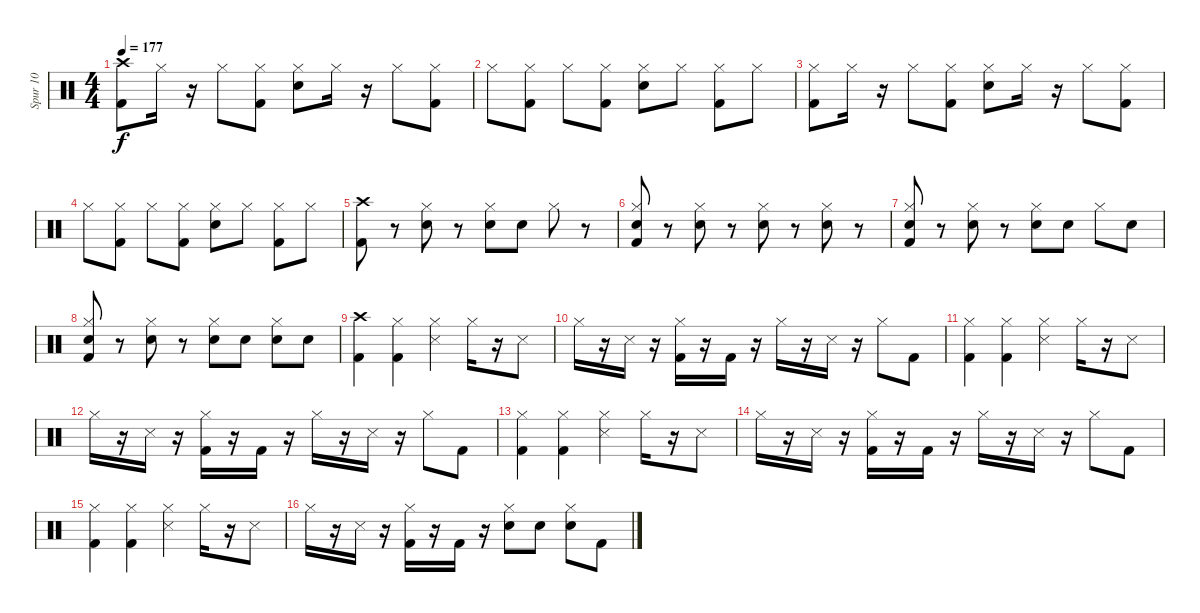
\track ("Spur 10" "Spur 10") {instrument percussion}
\staff {score}
\articulation defaults
\ts (4 4)
\tempo 177
\clef neutral
\ks c
("Crash high (hit)" "Kick (hit) 2").8{dy f} "Hi-Hat (closed)".16 r.16 "Hi-Hat (closed)".8 ("Kick (hit) 2" "Hi-Hat (closed)").8 ("Hi-Hat (closed)" "Electric Snare (hit)").8 "Hi-Hat (closed)".16 r.16 "Hi-Hat (closed)".8 ("Kick (hit) 2" "Hi-Hat (closed)").8 |
"Hi-Hat (closed)".8 ("Kick (hit) 2" "Hi-Hat (closed)").8 "Hi-Hat (closed)".8 ("Hi-Hat (closed)" "Kick (hit) 2").8 ("Hi-Hat (closed)" "Electric Snare (hit)").8 "Hi-Hat (closed)".8 ("Kick (hit) 2" "Hi-Hat (closed)").8 "Hi-Hat (closed)".8 |
("Kick (hit) 2" "Hi-Hat (closed)").8 "Hi-Hat (closed)".16 r.16 "Hi-Hat (closed)".8 ("Hi-Hat (closed)" "Kick (hit) 2").8 ("Electric Snare (hit)" "Hi-Hat (closed)").8 "Hi-Hat (closed)".16 r.16 "Hi-Hat (closed)".8 ("Kick (hit) 2" "Hi-Hat (closed)").8 |
"Hi-Hat (closed)".8 ("Kick (hit) 2" "Hi-Hat (closed)").8 "Hi-Hat (closed)".8 ("Hi-Hat (closed)" "Kick (hit) 2").8 ("Hi-Hat (closed)" "Electric Snare (hit)").8 "Hi-Hat (closed)".8 ("Kick (hit) 2" "Hi-Hat (closed)").8 "Hi-Hat (closed)".8 |
("Crash high (hit)" "Kick (hit) 2").8 r.8 ("Electric Snare (hit)" "Hi-Hat (closed)").8 r.8 ("Electric Snare (hit)" "Hi-Hat (closed)").8 "Electric Snare (hit)".8 "Hi-Hat (closed)".8 r.8 |
("Electric Snare (hit)" "Hi-Hat (closed)" "Kick (hit) 2").8 r.8 ("Electric Snare (hit)" "Hi-Hat (closed)").8 r.8 ("Hi-Hat (closed)" "Electric Snare (hit)").8 r.8 ("Hi-Hat (closed)" "Electric Snare (hit)").8 r.8 |
("Kick (hit) 2" "Hi-Hat (closed)" "Electric Snare (hit)").8 r.8 ("Hi-Hat (closed)" "Electric Snare (hit)").8 r.8 ("Hi-Hat (closed)" "Electric Snare (hit)").8 "Electric Snare (hit)".8 "Hi-Hat (closed)".8 "Electric Snare (hit)".8 |
("Kick (hit) 2" "Electric Snare (hit)" "Hi-Hat (closed)").8 r.8 ("Electric Snare (hit)" "Hi-Hat (closed)").8 r.8 ("Hi-Hat (closed)" "Electric Snare (hit)").8 "Electric Snare (hit)".8 ("Hi-Hat (closed)" "Electric Snare (hit)").8 "Electric Snare (hit)".8 |
("Crash high (hit)" "Kick (hit) 2").4 ("Hi-Hat (closed)" "Kick (hit) 2").4 ("Hi-Hat (closed)" "Metronome (hit)").4 "Hi-Hat (closed)".16 r.16 "Metronome (hit)".8 |
"Hi-Hat (closed)".16 r.16 "Metronome (hit)".16 r.16 ("Kick (hit) 2" "Hi-Hat (closed)").16 r.16 "Kick (hit) 2".16 r.16 "Hi-Hat (closed)".16 r.16 "Metronome (hit)".16 r.16 "Hi-Hat (closed)".8 "Kick (hit) 2".8 |
("Hi-Hat (closed)" "Kick (hit) 2").4 ("Hi-Hat (closed)" "Kick (hit) 2").4 ("Hi-Hat (closed)" "Metronome (hit)").4 "Hi-Hat (closed)".16 r.16 "Metronome (hit)".8 |
"Hi-Hat (closed)".16 r.16 "Metronome (hit)".16 r.16 ("Kick (hit) 2" "Hi-Hat (closed)").16 r.16 "Kick (hit) 2".16 r.16 "Hi-Hat (closed)".16 r.16 "Metronome (hit)".16 r.16 "Hi-Hat (closed)".8 "Kick (hit) 2".8 |
("Hi-Hat (closed)" "Kick (hit) 2").4 ("Hi-Hat (closed)" "Kick (hit) 2").4 ("Hi-Hat (closed)" "Metronome (hit)").4 "Hi-Hat (closed)".16 r.16 "Metronome (hit)".8 |
"Hi-Hat (closed)".16 r.16 "Metronome (hit)".16 r.16 ("Kick (hit) 2" "Hi-Hat (closed)").16 r.16 "Kick (hit) 2".16 r.16 "Hi-Hat (closed)".16 r.16 "Metronome (hit)".16 r.16 "Hi-Hat (closed)".8 "Kick (hit) 2".8 |
("Hi-Hat (closed)" "Kick (hit) 2").4 ("Hi-Hat (closed)" "Kick (hit) 2").4 ("Hi-Hat (closed)" "Metronome (hit)").4 "Hi-Hat (closed)".16 r.16 "Metronome (hit)".8 |
"Hi-Hat (closed)".16 r.16 "Metronome (hit)".16 r.16 ("Kick (hit) 2" "Hi-Hat (closed)").16 r.16 "Kick (hit) 2".16 r.16 ("Electric Snare (hit)" "Hi-Hat (closed)").8 "Electric Snare (hit)".8 ("Electric Snare (hit)" "Hi-Hat (closed)").8 "Kick (hit) 2".8
